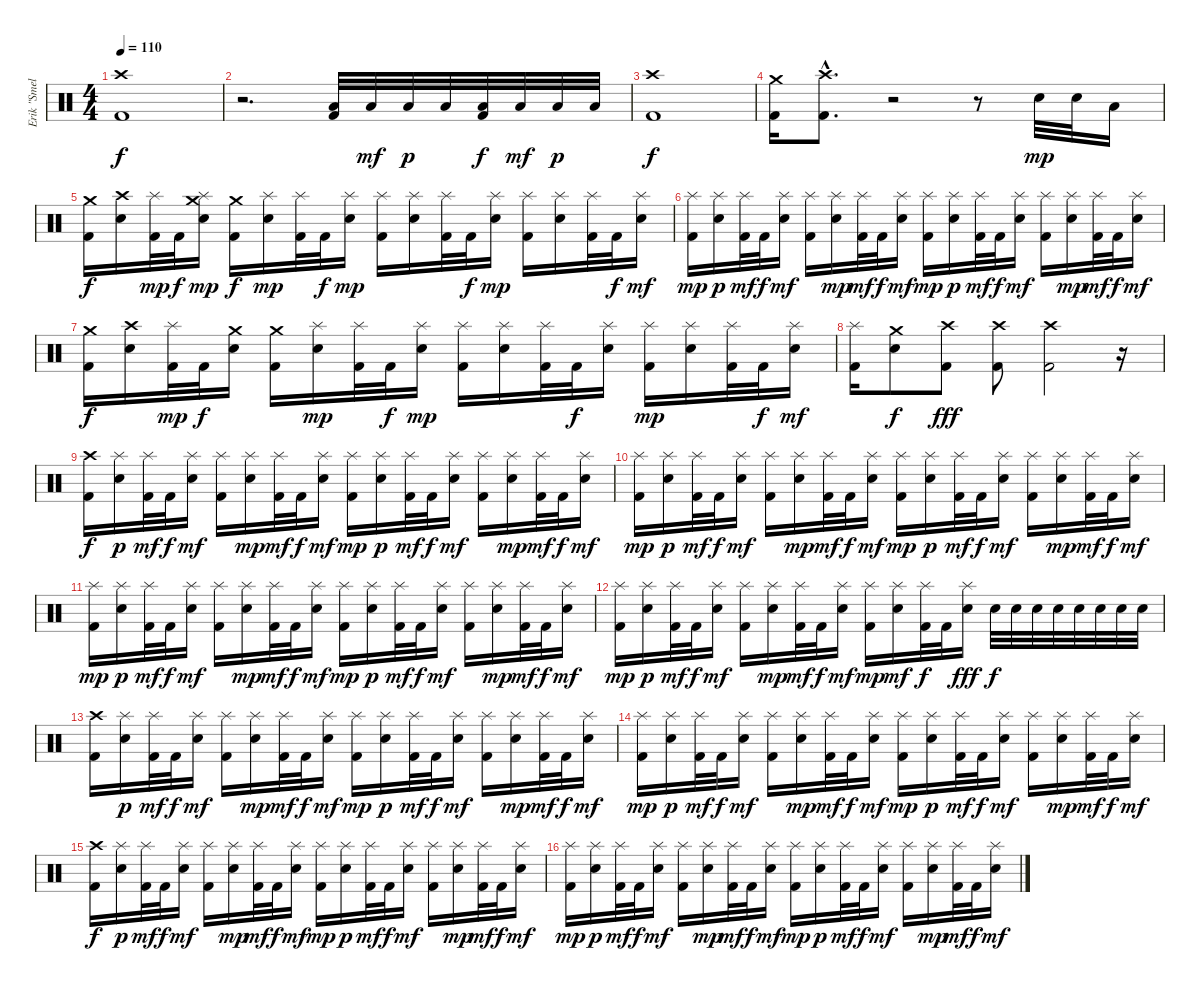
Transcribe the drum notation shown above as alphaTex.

\track ("Erik \"Smelly\" - Drums" "Erik \"Smel") {instrument percussion}
\staff {score}
\articulation defaults
\ts (4 4)
\tempo 110
\clef neutral
\ks c
("Crash high (hit)" "Kick (hit) 2").1{dy f} |
\section ("" "")
r.2{d} ("Low Tom (hit)" "Kick (hit) 2").32 "Low Tom (hit)".32{dy mf} "Low Tom (hit)".32{dy p} "Low Tom (hit)".32 ("Low Tom (hit)" "Kick (hit) 2").32{dy f} "Low Tom (hit)".32{dy mf} "Low Tom (hit)".32{dy p} "Low Tom (hit)".32 |
("Crash high (hit)" "Kick (hit) 2").1{dy f} |
("Crash medium (hit)" "Kick (hit) 2").16 ("Crash high (hit)"{hac} "Kick (hit) 2"{hac}).8{d} r.2 r.8 "Electric Snare (hit)".32{dy mp} "Electric Snare (hit)".32 "Low Tom (hit)".16 |
("Crash medium (hit)" "Kick (hit) 2").16{dy f} ("Crash high (hit)" "Electric Snare (hit)").16 ("Splash (hit)" "Kick (hit) 2").32{dy mp} "Kick (hit) 2".32{dy f} ("Crash medium (hit)" "Splash (hit)" "Electric Snare (hit)").16{dy mp} ("Crash medium (hit)" "Kick (hit) 2").16{dy f} ("Splash (hit)" "Electric Snare (hit)").16{dy mp} ("Splash (hit)" "Kick (hit) 2").32 "Kick (hit) 2".32{dy f} ("Splash (hit)" "Electric Snare (hit)").16{dy mp} ("Splash (hit)" "Kick (hit) 2").16 ("Splash (hit)" "Electric Snare (hit)").16 ("Splash (hit)" "Kick (hit) 2").32 "Kick (hit) 2".32{dy f} ("Splash (hit)" "Electric Snare (hit)").16{dy mp} ("Splash (hit)" "Kick (hit) 2").16 ("Splash (hit)" "Electric Snare (hit)").16 ("Splash (hit)" "Kick (hit) 2").32 "Kick (hit) 2".32{dy f} ("Splash (hit)" "Electric Snare (hit)").16{dy mf} |
("Splash (hit)" "Kick (hit) 2").16{dy mp} ("Splash (hit)" "Electric Snare (hit)").16{dy p} ("Splash (hit)" "Kick (hit) 2").32{dy mf} "Kick (hit) 2".32{dy f} ("Splash (hit)" "Electric Snare (hit)").16{dy mf} ("Splash (hit)" "Kick (hit) 2").16 ("Splash (hit)" "Electric Snare (hit)").16{dy mp} ("Splash (hit)" "Kick (hit) 2").32{dy mf} "Kick (hit) 2".32{dy f} ("Splash (hit)" "Electric Snare (hit)").16{dy mf} ("Splash (hit)" "Kick (hit) 2").16{dy mp} ("Splash (hit)" "Electric Snare (hit)").16{dy p} ("Splash (hit)" "Kick (hit) 2").32{dy mf} "Kick (hit) 2".32{dy f} ("Splash (hit)" "Electric Snare (hit)").16{dy mf} ("Splash (hit)" "Kick (hit) 2").16 ("Splash (hit)" "Electric Snare (hit)").16{dy mp} ("Splash (hit)" "Kick (hit) 2").32{dy mf} "Kick (hit) 2".32{dy f} ("Splash (hit)" "Electric Snare (hit)").16{dy mf} |
("Crash medium (hit)" "Kick (hit) 2").16{dy f} ("Crash high (hit)" "Electric Snare (hit)").16 ("Splash (hit)" "Kick (hit) 2").32{dy mp} "Kick (hit) 2".32{dy f} ("Crash medium (hit)" "Electric Snare (hit)").16 ("Crash medium (hit)" "Kick (hit) 2").16 ("Splash (hit)" "Electric Snare (hit)").16{dy mp} ("Splash (hit)" "Kick (hit) 2").32 "Kick (hit) 2".32{dy f} ("Splash (hit)" "Electric Snare (hit)").16{dy mp} ("Splash (hit)" "Kick (hit) 2").16 ("Splash (hit)" "Electric Snare (hit)").16 ("Splash (hit)" "Kick (hit) 2").32 "Kick (hit) 2".32{dy f} ("Splash (hit)" "Electric Snare (hit)").16 ("Splash (hit)" "Kick (hit) 2").16{dy mp} ("Splash (hit)" "Electric Snare (hit)").16 ("Splash (hit)" "Kick (hit) 2").32 "Kick (hit) 2".32{dy f} ("Splash (hit)" "Electric Snare (hit)").16{dy mf} |
("Splash (hit)" "Kick (hit) 2").16 ("Crash medium (hit)" "Electric Snare (hit)").8{dy f} ("Crash high (hit)" "Kick (hit) 2").8{dy fff} ("Crash high (hit)" "Kick (hit) 2").8 ("Crash high (hit)" "Kick (hit) 2").2 r.16 |
("Crash high (hit)" "Kick (hit) 2").16{dy f} ("Splash (hit)" "Electric Snare (hit)").16{dy p} ("Splash (hit)" "Kick (hit) 2").32{dy mf} "Kick (hit) 2".32{dy f} ("Splash (hit)" "Electric Snare (hit)").16{dy mf} ("Splash (hit)" "Kick (hit) 2").16 ("Splash (hit)" "Electric Snare (hit)").16{dy mp} ("Splash (hit)" "Kick (hit) 2").32{dy mf} "Kick (hit) 2".32{dy f} ("Splash (hit)" "Electric Snare (hit)").16{dy mf} ("Splash (hit)" "Kick (hit) 2").16{dy mp} ("Splash (hit)" "Electric Snare (hit)").16{dy p} ("Splash (hit)" "Kick (hit) 2").32{dy mf} "Kick (hit) 2".32{dy f} ("Splash (hit)" "Electric Snare (hit)").16{dy mf} ("Splash (hit)" "Kick (hit) 2").16 ("Splash (hit)" "Electric Snare (hit)").16{dy mp} ("Splash (hit)" "Kick (hit) 2").32{dy mf} "Kick (hit) 2".32{dy f} ("Splash (hit)" "Electric Snare (hit)").16{dy mf} |
("Splash (hit)" "Kick (hit) 2").16{dy mp} ("Splash (hit)" "Electric Snare (hit)").16{dy p} ("Splash (hit)" "Kick (hit) 2").32{dy mf} "Kick (hit) 2".32{dy f} ("Splash (hit)" "Electric Snare (hit)").16{dy mf} ("Splash (hit)" "Kick (hit) 2").16 ("Splash (hit)" "Electric Snare (hit)").16{dy mp} ("Splash (hit)" "Kick (hit) 2").32{dy mf} "Kick (hit) 2".32{dy f} ("Splash (hit)" "Electric Snare (hit)").16{dy mf} ("Splash (hit)" "Kick (hit) 2").16{dy mp} ("Splash (hit)" "Electric Snare (hit)").16{dy p} ("Splash (hit)" "Kick (hit) 2").32{dy mf} "Kick (hit) 2".32{dy f} ("Splash (hit)" "Electric Snare (hit)").16{dy mf} ("Splash (hit)" "Kick (hit) 2").16 ("Splash (hit)" "Electric Snare (hit)").16{dy mp} ("Splash (hit)" "Kick (hit) 2").32{dy mf} "Kick (hit) 2".32{dy f} ("Splash (hit)" "Electric Snare (hit)").16{dy mf} |
("Splash (hit)" "Kick (hit) 2").16{dy mp} ("Splash (hit)" "Electric Snare (hit)").16{dy p} ("Splash (hit)" "Kick (hit) 2").32{dy mf} "Kick (hit) 2".32{dy f} ("Splash (hit)" "Electric Snare (hit)").16{dy mf} ("Splash (hit)" "Kick (hit) 2").16 ("Splash (hit)" "Electric Snare (hit)").16{dy mp} ("Splash (hit)" "Kick (hit) 2").32{dy mf} "Kick (hit) 2".32{dy f} ("Splash (hit)" "Electric Snare (hit)").16{dy mf} ("Splash (hit)" "Kick (hit) 2").16{dy mp} ("Splash (hit)" "Electric Snare (hit)").16{dy p} ("Splash (hit)" "Kick (hit) 2").32{dy mf} "Kick (hit) 2".32{dy f} ("Splash (hit)" "Electric Snare (hit)").16{dy mf} ("Splash (hit)" "Kick (hit) 2").16 ("Splash (hit)" "Electric Snare (hit)").16{dy mp} ("Splash (hit)" "Kick (hit) 2").32{dy mf} "Kick (hit) 2".32{dy f} ("Splash (hit)" "Electric Snare (hit)").16{dy mf} |
("Splash (hit)" "Kick (hit) 2").16{dy mp} ("Splash (hit)" "Electric Snare (hit)").16{dy p} ("Splash (hit)" "Kick (hit) 2").32{dy mf} "Kick (hit) 2".32{dy f} ("Splash (hit)" "Electric Snare (hit)").16{dy mf} ("Splash (hit)" "Kick (hit) 2").16 ("Splash (hit)" "Electric Snare (hit)").16{dy mp} ("Splash (hit)" "Kick (hit) 2").32{dy mf} "Kick (hit) 2".32{dy f} ("Splash (hit)" "Electric Snare (hit)").16{dy mf} ("Splash (hit)" "Kick (hit) 2").16{dy mp} ("Splash (hit)" "Electric Snare (hit)").16{dy mf} ("Splash (hit)" "Kick (hit) 2").32{dy f} "Kick (hit) 2".32 ("Splash (hit)" "Electric Snare (hit)").16{dy fff} "Electric Snare (hit)".32{dy f} "Electric Snare (hit)".32 "Electric Snare (hit)".32 "Electric Snare (hit)".32 "Electric Snare (hit)".32 "Electric Snare (hit)".32 "Electric Snare (hit)".32 "Electric Snare (hit)".32 |
("Crash high (hit)" "Kick (hit) 2").16 ("Splash (hit)" "Electric Snare (hit)").16{dy p} ("Splash (hit)" "Kick (hit) 2").32{dy mf} "Kick (hit) 2".32{dy f} ("Splash (hit)" "Electric Snare (hit)").16{dy mf} ("Splash (hit)" "Kick (hit) 2").16 ("Splash (hit)" "Electric Snare (hit)").16{dy mp} ("Splash (hit)" "Kick (hit) 2").32{dy mf} "Kick (hit) 2".32{dy f} ("Splash (hit)" "Electric Snare (hit)").16{dy mf} ("Splash (hit)" "Kick (hit) 2").16{dy mp} ("Splash (hit)" "Electric Snare (hit)").16{dy p} ("Splash (hit)" "Kick (hit) 2").32{dy mf} "Kick (hit) 2".32{dy f} ("Splash (hit)" "Electric Snare (hit)").16{dy mf} ("Splash (hit)" "Kick (hit) 2").16 ("Splash (hit)" "Electric Snare (hit)").16{dy mp} ("Splash (hit)" "Kick (hit) 2").32{dy mf} "Kick (hit) 2".32{dy f} ("Splash (hit)" "Electric Snare (hit)").16{dy mf} |
("Splash (hit)" "Kick (hit) 2").16{dy mp} ("Splash (hit)" "Electric Snare (hit)").16{dy p} ("Splash (hit)" "Kick (hit) 2").32{dy mf} "Kick (hit) 2".32{dy f} ("Splash (hit)" "Electric Snare (hit)").16{dy mf} ("Splash (hit)" "Kick (hit) 2").16 ("Splash (hit)" "Electric Snare (hit)").16{dy mp} ("Splash (hit)" "Kick (hit) 2").32{dy mf} "Kick (hit) 2".32{dy f} ("Splash (hit)" "Electric Snare (hit)").16{dy mf} ("Splash (hit)" "Kick (hit) 2").16{dy mp} ("Splash (hit)" "Electric Snare (hit)").16{dy p} ("Splash (hit)" "Kick (hit) 2").32{dy mf} "Kick (hit) 2".32{dy f} ("Splash (hit)" "Electric Snare (hit)").16{dy mf} ("Splash (hit)" "Kick (hit) 2").16 ("Splash (hit)" "Electric Snare (hit)").16{dy mp} ("Splash (hit)" "Kick (hit) 2").32{dy mf} "Kick (hit) 2".32{dy f} ("Splash (hit)" "Electric Snare (hit)").16{dy mf} |
("Crash high (hit)" "Kick (hit) 2").16{dy f} ("Splash (hit)" "Electric Snare (hit)").16{dy p} ("Splash (hit)" "Kick (hit) 2").32{dy mf} "Kick (hit) 2".32{dy f} ("Splash (hit)" "Electric Snare (hit)").16{dy mf} ("Splash (hit)" "Kick (hit) 2").16 ("Splash (hit)" "Electric Snare (hit)").16{dy mp} ("Splash (hit)" "Kick (hit) 2").32{dy mf} "Kick (hit) 2".32{dy f} ("Splash (hit)" "Electric Snare (hit)").16{dy mf} ("Splash (hit)" "Kick (hit) 2").16{dy mp} ("Splash (hit)" "Electric Snare (hit)").16{dy p} ("Splash (hit)" "Kick (hit) 2").32{dy mf} "Kick (hit) 2".32{dy f} ("Splash (hit)" "Electric Snare (hit)").16{dy mf} ("Splash (hit)" "Kick (hit) 2").16 ("Splash (hit)" "Electric Snare (hit)").16{dy mp} ("Splash (hit)" "Kick (hit) 2").32{dy mf} "Kick (hit) 2".32{dy f} ("Splash (hit)" "Electric Snare (hit)").16{dy mf} |
("Splash (hit)" "Kick (hit) 2").16{dy mp} ("Splash (hit)" "Electric Snare (hit)").16{dy p} ("Splash (hit)" "Kick (hit) 2").32{dy mf} "Kick (hit) 2".32{dy f} ("Splash (hit)" "Electric Snare (hit)").16{dy mf} ("Splash (hit)" "Kick (hit) 2").16 ("Splash (hit)" "Electric Snare (hit)").16{dy mp} ("Splash (hit)" "Kick (hit) 2").32{dy mf} "Kick (hit) 2".32{dy f} ("Splash (hit)" "Electric Snare (hit)").16{dy mf} ("Splash (hit)" "Kick (hit) 2").16{dy mp} ("Splash (hit)" "Electric Snare (hit)").16{dy p} ("Splash (hit)" "Kick (hit) 2").32{dy mf} "Kick (hit) 2".32{dy f} ("Splash (hit)" "Electric Snare (hit)").16{dy mf} ("Splash (hit)" "Kick (hit) 2").16 ("Splash (hit)" "Electric Snare (hit)").16{dy mp} ("Splash (hit)" "Kick (hit) 2").32{dy mf} "Kick (hit) 2".32{dy f} ("Splash (hit)" "Electric Snare (hit)").16{dy mf}
